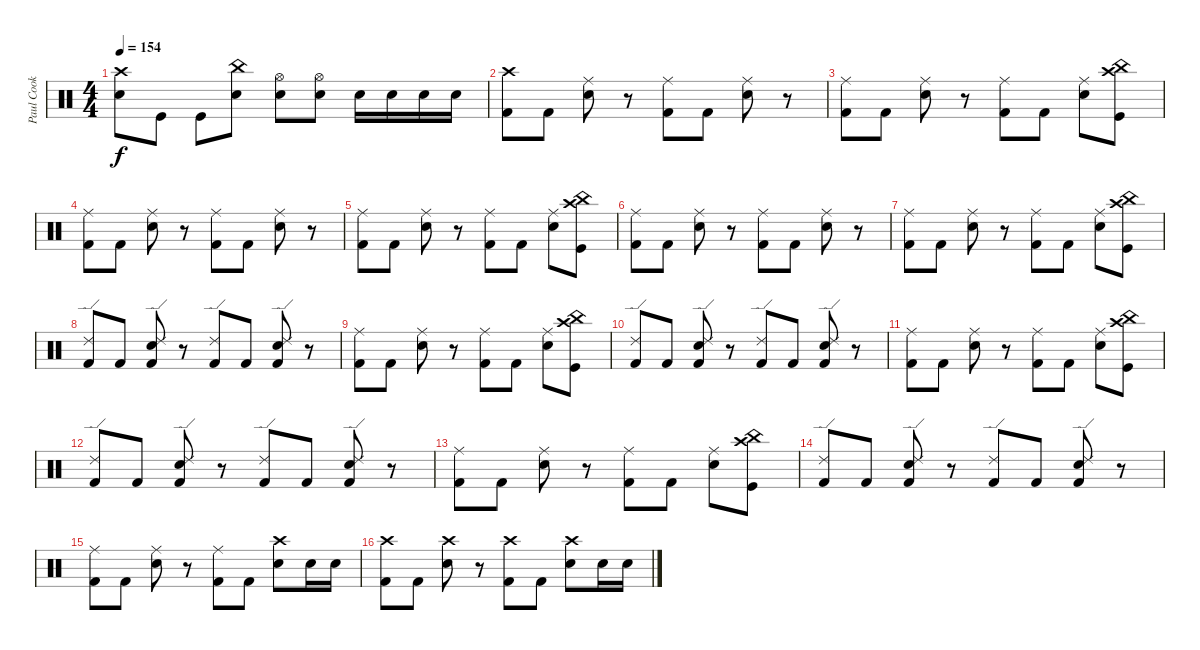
\track ("Paul Cook" "Paul Cook") {instrument percussion}
\staff {score}
\articulation defaults
\ts (4 4)
\tempo 154
\clef neutral
\ks c
("Snare (hit) 2" "Crash high (hit)").8{dy f} "Kick (hit)".8 "Kick (hit)".8 ("China (hit)" "Snare (hit) 2").8 ("Snare (hit) 2" "Hi-Hat (open)").8 ("Snare (hit) 2" "Hi-Hat (open)").8 "Snare (hit) 2".16 "Snare (hit) 2".16 "Snare (hit) 2".16 "Snare (hit) 2".16 |
("Crash high (hit)" "Kick (hit) 2").8 "Kick (hit) 2".8 ("Ride (middle)" "Electric Snare (hit)").8 r.8 ("Ride (middle)" "Kick (hit) 2").8 "Kick (hit) 2".8 ("Ride (middle)" "Electric Snare (hit)").8 r.8 |
("Ride (middle)" "Kick (hit) 2").8 "Kick (hit) 2".8 ("Ride (middle)" "Electric Snare (hit)").8 r.8 ("Ride (middle)" "Kick (hit) 2").8 "Kick (hit) 2".8 ("Ride (middle)" "Electric Snare (hit)").8 ("Kick (hit)" "Crash high (hit)" "China (hit)").8 |
("Ride (middle)" "Kick (hit) 2").8 "Kick (hit) 2".8 ("Ride (middle)" "Electric Snare (hit)").8 r.8 ("Ride (middle)" "Kick (hit) 2").8 "Kick (hit) 2".8 ("Ride (middle)" "Electric Snare (hit)").8 r.8 |
("Ride (middle)" "Kick (hit) 2").8 "Kick (hit) 2".8 ("Ride (middle)" "Electric Snare (hit)").8 r.8 ("Ride (middle)" "Kick (hit) 2").8 "Kick (hit) 2".8 ("Ride (middle)" "Electric Snare (hit)").8 ("Kick (hit)" "Crash high (hit)" "China (hit)").8 |
("Ride (middle)" "Kick (hit) 2").8 "Kick (hit) 2".8 ("Ride (middle)" "Electric Snare (hit)").8 r.8 ("Ride (middle)" "Kick (hit) 2").8 "Kick (hit) 2".8 ("Ride (middle)" "Electric Snare (hit)").8 r.8 |
("Ride (middle)" "Kick (hit) 2").8 "Kick (hit) 2".8 ("Ride (middle)" "Electric Snare (hit)").8 r.8 ("Ride (middle)" "Kick (hit) 2").8 "Kick (hit) 2".8 ("Ride (middle)" "Electric Snare (hit)").8 ("Kick (hit)" "Crash high (hit)" "China (hit)").8 |
("Ride (edge) 2" "Kick (hit) 2").8 "Kick (hit) 2".8 ("Ride (edge) 2" "Electric Snare (hit)" "Kick (hit) 2").8 r.8 ("Ride (edge) 2" "Kick (hit) 2").8 "Kick (hit) 2".8 ("Ride (edge) 2" "Electric Snare (hit)" "Kick (hit) 2").8 r.8 |
("Ride (middle)" "Kick (hit) 2").8 "Kick (hit) 2".8 ("Ride (middle)" "Electric Snare (hit)").8 r.8 ("Ride (middle)" "Kick (hit) 2").8 "Kick (hit) 2".8 ("Ride (middle)" "Electric Snare (hit)").8 ("Kick (hit)" "Crash high (hit)" "China (hit)").8 |
("Ride (edge) 2" "Kick (hit) 2").8 "Kick (hit) 2".8 ("Ride (edge) 2" "Electric Snare (hit)" "Kick (hit) 2").8 r.8 ("Ride (edge) 2" "Kick (hit) 2").8 "Kick (hit) 2".8 ("Ride (edge) 2" "Electric Snare (hit)" "Kick (hit) 2").8 r.8 |
("Ride (middle)" "Kick (hit) 2").8 "Kick (hit) 2".8 ("Ride (middle)" "Electric Snare (hit)").8 r.8 ("Ride (middle)" "Kick (hit) 2").8 "Kick (hit) 2".8 ("Ride (middle)" "Electric Snare (hit)").8 ("Kick (hit)" "Crash high (hit)" "China (hit)").8 |
("Ride (edge) 2" "Kick (hit) 2").8 "Kick (hit) 2".8 ("Ride (edge) 2" "Electric Snare (hit)" "Kick (hit) 2").8 r.8 ("Ride (edge) 2" "Kick (hit) 2").8 "Kick (hit) 2".8 ("Ride (edge) 2" "Electric Snare (hit)" "Kick (hit) 2").8 r.8 |
("Ride (middle)" "Kick (hit) 2").8 "Kick (hit) 2".8 ("Ride (middle)" "Electric Snare (hit)").8 r.8 ("Ride (middle)" "Kick (hit) 2").8 "Kick (hit) 2".8 ("Ride (middle)" "Electric Snare (hit)").8 ("Kick (hit)" "Crash high (hit)" "China (hit)").8 |
("Ride (edge) 2" "Kick (hit) 2").8 "Kick (hit) 2".8 ("Ride (edge) 2" "Electric Snare (hit)" "Kick (hit) 2").8 r.8 ("Ride (edge) 2" "Kick (hit) 2").8 "Kick (hit) 2".8 ("Ride (edge) 2" "Electric Snare (hit)" "Kick (hit) 2").8 r.8 |
("Ride (middle)" "Kick (hit) 2").8 "Kick (hit) 2".8 ("Ride (middle)" "Electric Snare (hit)").8 r.8 ("Ride (middle)" "Kick (hit) 2").8 "Kick (hit) 2".8 ("Crash high (hit)" "Electric Snare (hit)").8 "Snare (hit) 2".16 "Snare (hit) 2".16 |
("Crash high (hit)" "Kick (hit) 2").8 "Kick (hit) 2".8 ("Crash high (hit)" "Electric Snare (hit)").8 r.8 ("Crash high (hit)" "Kick (hit) 2").8 "Kick (hit) 2".8 ("Crash high (hit)" "Electric Snare (hit)").8 "Snare (hit) 2".16 "Snare (hit) 2".16
